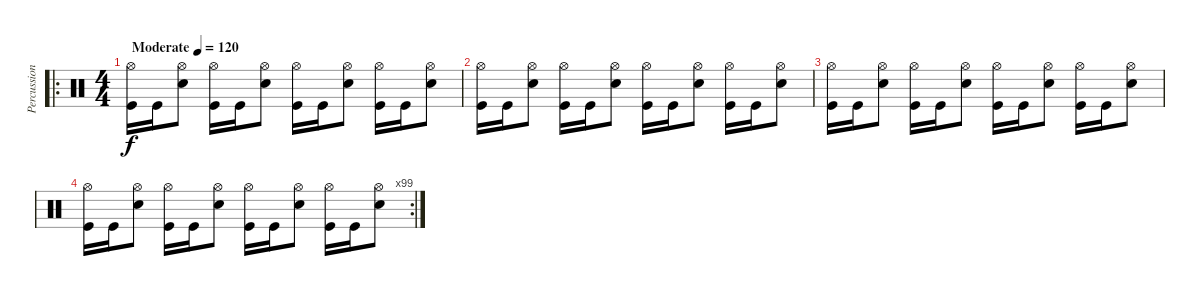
\track ("Percussion" "Percussion") {instrument percussion}
\staff {score}
\articulation defaults
\ro
\ts (4 4)
\tempo (120 "Moderate")
\clef neutral
\ks c
("Hi-Hat (open)" "Kick (hit)").16{dy f} "Kick (hit)".16 ("Hi-Hat (open)" "Snare (hit) 2").8 ("Hi-Hat (open)" "Kick (hit)").16 "Kick (hit)".16 ("Hi-Hat (open)" "Snare (hit) 2").8 ("Hi-Hat (open)" "Kick (hit)").16 "Kick (hit)".16 ("Hi-Hat (open)" "Snare (hit) 2").8 ("Hi-Hat (open)" "Kick (hit)").16 "Kick (hit)".16 ("Hi-Hat (open)" "Snare (hit) 2").8 |
("Hi-Hat (open)" "Kick (hit)").16 "Kick (hit)".16 ("Hi-Hat (open)" "Snare (hit) 2").8 ("Hi-Hat (open)" "Kick (hit)").16 "Kick (hit)".16 ("Hi-Hat (open)" "Snare (hit) 2").8 ("Hi-Hat (open)" "Kick (hit)").16 "Kick (hit)".16 ("Hi-Hat (open)" "Snare (hit) 2").8 ("Hi-Hat (open)" "Kick (hit)").16 "Kick (hit)".16 ("Hi-Hat (open)" "Snare (hit) 2").8 |
("Hi-Hat (open)" "Kick (hit)").16 "Kick (hit)".16 ("Hi-Hat (open)" "Snare (hit) 2").8 ("Hi-Hat (open)" "Kick (hit)").16 "Kick (hit)".16 ("Hi-Hat (open)" "Snare (hit) 2").8 ("Hi-Hat (open)" "Kick (hit)").16 "Kick (hit)".16 ("Hi-Hat (open)" "Snare (hit) 2").8 ("Hi-Hat (open)" "Kick (hit)").16 "Kick (hit)".16 ("Hi-Hat (open)" "Snare (hit) 2").8 |
\rc 99
("Hi-Hat (open)" "Kick (hit)").16 "Kick (hit)".16 ("Hi-Hat (open)" "Snare (hit) 2").8 ("Hi-Hat (open)" "Kick (hit)").16 "Kick (hit)".16 ("Hi-Hat (open)" "Snare (hit) 2").8 ("Hi-Hat (open)" "Kick (hit)").16 "Kick (hit)".16 ("Hi-Hat (open)" "Snare (hit) 2").8 ("Hi-Hat (open)" "Kick (hit)").16 "Kick (hit)".16 ("Hi-Hat (open)" "Snare (hit) 2").8
